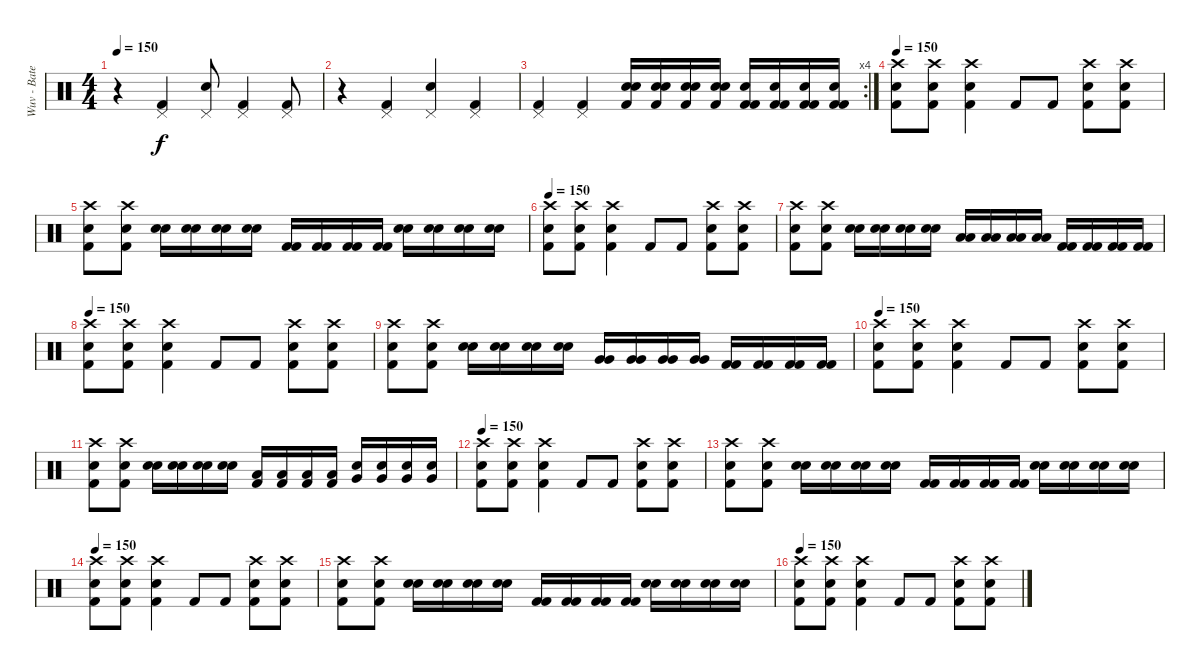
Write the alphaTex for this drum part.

\track ("Wuv - Bateria " "Wuv - Bate") {instrument percussion}
\staff {score}
\articulation defaults
\ts (4 4)
\tempo 150
\clef neutral
\ks c
r.4{dy f} ("Pedal Hi-Hat (hit)" "Kick (hit) 2").4 ("Pedal Hi-Hat (hit)" "Electric Snare (hit)").8 ("Pedal Hi-Hat (hit)" "Kick (hit) 2").4 ("Pedal Hi-Hat (hit)" "Kick (hit) 2").8 |
r.4 ("Pedal Hi-Hat (hit)" "Kick (hit) 2").4 ("Pedal Hi-Hat (hit)" "Electric Snare (hit)").4 ("Pedal Hi-Hat (hit)" "Kick (hit) 2").4 |
\rc 4
("Pedal Hi-Hat (hit)" "Kick (hit) 2").4 ("Pedal Hi-Hat (hit)" "Kick (hit) 2").4 ("Snare (hit)" "Kick (hit) 2" "Electric Snare (hit)").16 ("Snare (hit)" "Kick (hit) 2" "Electric Snare (hit)").16 ("Snare (hit)" "Kick (hit) 2" "Electric Snare (hit)").16 ("Snare (hit)" "Kick (hit) 2" "Electric Snare (hit)").16 ("Snare (hit)" "Kick (hit) 2" "Kick (hit) 2").16 ("Snare (hit)" "Kick (hit) 2" "Kick (hit) 2").16 ("Snare (hit)" "Kick (hit) 2" "Kick (hit) 2").16 ("Snare (hit)" "Kick (hit) 2" "Kick (hit) 2").16 |
\tempo 150
("Crash high (hit)" "Electric Snare (hit)" "Kick (hit) 2").8 ("Crash high (hit)" "Electric Snare (hit)" "Kick (hit) 2").8 ("Crash high (hit)" "Electric Snare (hit)" "Kick (hit) 2").4 "Kick (hit) 2".8 "Kick (hit) 2".8 ("Crash high (hit)" "Electric Snare (hit)" "Kick (hit) 2").8 ("Crash high (hit)" "Electric Snare (hit)" "Kick (hit) 2").8 |
("Crash high (hit)" "Electric Snare (hit)" "Kick (hit) 2").8 ("Crash high (hit)" "Electric Snare (hit)" "Kick (hit) 2").8 ("Electric Snare (hit)" "Electric Snare (hit)").16 ("Electric Snare (hit)" "Electric Snare (hit)").16 ("Electric Snare (hit)" "Electric Snare (hit)").16 ("Electric Snare (hit)" "Electric Snare (hit)").16 ("Kick (hit) 2" "Kick (hit) 2").16 ("Kick (hit) 2" "Kick (hit) 2").16 ("Kick (hit) 2" "Kick (hit) 2").16 ("Kick (hit) 2" "Kick (hit) 2").16 ("Snare (hit) 2" "Snare (hit) 2").16 ("Snare (hit) 2" "Snare (hit) 2").16 ("Snare (hit) 2" "Snare (hit) 2").16 ("Snare (hit) 2" "Snare (hit) 2").16 |
\tempo 150
("Crash high (hit)" "Electric Snare (hit)" "Kick (hit) 2").8 ("Crash high (hit)" "Electric Snare (hit)" "Kick (hit) 2").8 ("Crash high (hit)" "Electric Snare (hit)" "Kick (hit) 2").4 "Kick (hit) 2".8 "Kick (hit) 2".8 ("Crash high (hit)" "Electric Snare (hit)" "Kick (hit) 2").8 ("Crash high (hit)" "Electric Snare (hit)" "Kick (hit) 2").8 |
("Crash high (hit)" "Electric Snare (hit)" "Kick (hit) 2").8 ("Crash high (hit)" "Electric Snare (hit)" "Kick (hit) 2").8 ("Electric Snare (hit)" "Electric Snare (hit)").16 ("Electric Snare (hit)" "Electric Snare (hit)").16 ("Electric Snare (hit)" "Electric Snare (hit)").16 ("Electric Snare (hit)" "Electric Snare (hit)").16 ("Low Tom (hit)" "Low Tom (hit)").16 ("Low Tom (hit)" "Low Tom (hit)").16 ("Low Tom (hit)" "Low Tom (hit)").16 ("Low Tom (hit)" "Low Tom (hit)").16 ("Kick (hit) 2" "Kick (hit) 2").16 ("Kick (hit) 2" "Kick (hit) 2").16 ("Kick (hit) 2" "Kick (hit) 2").16 ("Kick (hit) 2" "Kick (hit) 2").16 |
\tempo 150
("Crash high (hit)" "Electric Snare (hit)" "Kick (hit) 2").8 ("Crash high (hit)" "Electric Snare (hit)" "Kick (hit) 2").8 ("Crash high (hit)" "Electric Snare (hit)" "Kick (hit) 2").4 "Kick (hit) 2".8 "Kick (hit) 2".8 ("Crash high (hit)" "Electric Snare (hit)" "Kick (hit) 2").8 ("Crash high (hit)" "Electric Snare (hit)" "Kick (hit) 2").8 |
("Crash high (hit)" "Electric Snare (hit)" "Kick (hit) 2").8 ("Crash high (hit)" "Electric Snare (hit)" "Kick (hit) 2").8 ("Electric Snare (hit)" "Electric Snare (hit)").16 ("Electric Snare (hit)" "Electric Snare (hit)").16 ("Electric Snare (hit)" "Electric Snare (hit)").16 ("Electric Snare (hit)" "Electric Snare (hit)").16 ("Very Low Tom (hit)" "Very Low Tom (hit)").16 ("Very Low Tom (hit)" "Very Low Tom (hit)").16 ("Very Low Tom (hit)" "Very Low Tom (hit)").16 ("Very Low Tom (hit)" "Very Low Tom (hit)").16 ("Kick (hit) 2" "Kick (hit) 2").16 ("Kick (hit) 2" "Kick (hit) 2").16 ("Kick (hit) 2" "Kick (hit) 2").16 ("Kick (hit) 2" "Kick (hit) 2").16 |
\tempo 150
("Crash high (hit)" "Electric Snare (hit)" "Kick (hit) 2").8 ("Crash high (hit)" "Electric Snare (hit)" "Kick (hit) 2").8 ("Crash high (hit)" "Electric Snare (hit)" "Kick (hit) 2").4 "Kick (hit) 2".8 "Kick (hit) 2".8 ("Crash high (hit)" "Electric Snare (hit)" "Kick (hit) 2").8 ("Crash high (hit)" "Electric Snare (hit)" "Kick (hit) 2").8 |
("Crash high (hit)" "Electric Snare (hit)" "Kick (hit) 2").8 ("Crash high (hit)" "Electric Snare (hit)" "Kick (hit) 2").8 ("Electric Snare (hit)" "Electric Snare (hit)").16 ("Electric Snare (hit)" "Electric Snare (hit)").16 ("Electric Snare (hit)" "Electric Snare (hit)").16 ("Electric Snare (hit)" "Electric Snare (hit)").16 ("Low Tom (hit)" "Kick (hit) 2").16 ("Low Tom (hit)" "Kick (hit) 2").16 ("Low Tom (hit)" "Kick (hit) 2").16 ("Low Tom (hit)" "Kick (hit) 2").16 ("Very Low Tom (hit)" "Snare (hit) 2").16 ("Very Low Tom (hit)" "Snare (hit) 2").16 ("Very Low Tom (hit)" "Snare (hit) 2").16 ("Very Low Tom (hit)" "Snare (hit) 2").16 |
\tempo 150
("Crash high (hit)" "Electric Snare (hit)" "Kick (hit) 2").8 ("Crash high (hit)" "Electric Snare (hit)" "Kick (hit) 2").8 ("Crash high (hit)" "Electric Snare (hit)" "Kick (hit) 2").4 "Kick (hit) 2".8 "Kick (hit) 2".8 ("Crash high (hit)" "Electric Snare (hit)" "Kick (hit) 2").8 ("Crash high (hit)" "Electric Snare (hit)" "Kick (hit) 2").8 |
("Crash high (hit)" "Electric Snare (hit)" "Kick (hit) 2").8 ("Crash high (hit)" "Electric Snare (hit)" "Kick (hit) 2").8 ("Electric Snare (hit)" "Electric Snare (hit)").16 ("Electric Snare (hit)" "Electric Snare (hit)").16 ("Electric Snare (hit)" "Electric Snare (hit)").16 ("Electric Snare (hit)" "Electric Snare (hit)").16 ("Kick (hit) 2" "Kick (hit) 2").16 ("Kick (hit) 2" "Kick (hit) 2").16 ("Kick (hit) 2" "Kick (hit) 2").16 ("Kick (hit) 2" "Kick (hit) 2").16 ("Snare (hit) 2" "Snare (hit) 2").16 ("Snare (hit) 2" "Snare (hit) 2").16 ("Snare (hit) 2" "Snare (hit) 2").16 ("Snare (hit) 2" "Snare (hit) 2").16 |
\tempo 150
("Crash high (hit)" "Electric Snare (hit)" "Kick (hit) 2").8 ("Crash high (hit)" "Electric Snare (hit)" "Kick (hit) 2").8 ("Crash high (hit)" "Electric Snare (hit)" "Kick (hit) 2").4 "Kick (hit) 2".8 "Kick (hit) 2".8 ("Crash high (hit)" "Electric Snare (hit)" "Kick (hit) 2").8 ("Crash high (hit)" "Electric Snare (hit)" "Kick (hit) 2").8 |
("Crash high (hit)" "Electric Snare (hit)" "Kick (hit) 2").8 ("Crash high (hit)" "Electric Snare (hit)" "Kick (hit) 2").8 ("Electric Snare (hit)" "Electric Snare (hit)").16 ("Electric Snare (hit)" "Electric Snare (hit)").16 ("Electric Snare (hit)" "Electric Snare (hit)").16 ("Electric Snare (hit)" "Electric Snare (hit)").16 ("Kick (hit) 2" "Kick (hit) 2").16 ("Kick (hit) 2" "Kick (hit) 2").16 ("Kick (hit) 2" "Kick (hit) 2").16 ("Kick (hit) 2" "Kick (hit) 2").16 ("Snare (hit) 2" "Snare (hit) 2").16 ("Snare (hit) 2" "Snare (hit) 2").16 ("Snare (hit) 2" "Snare (hit) 2").16 ("Snare (hit) 2" "Snare (hit) 2").16 |
\tempo 150
("Crash high (hit)" "Electric Snare (hit)" "Kick (hit) 2").8 ("Crash high (hit)" "Electric Snare (hit)" "Kick (hit) 2").8 ("Crash high (hit)" "Electric Snare (hit)" "Kick (hit) 2").4 "Kick (hit) 2".8 "Kick (hit) 2".8 ("Crash high (hit)" "Electric Snare (hit)" "Kick (hit) 2").8 ("Crash high (hit)" "Electric Snare (hit)" "Kick (hit) 2").8
